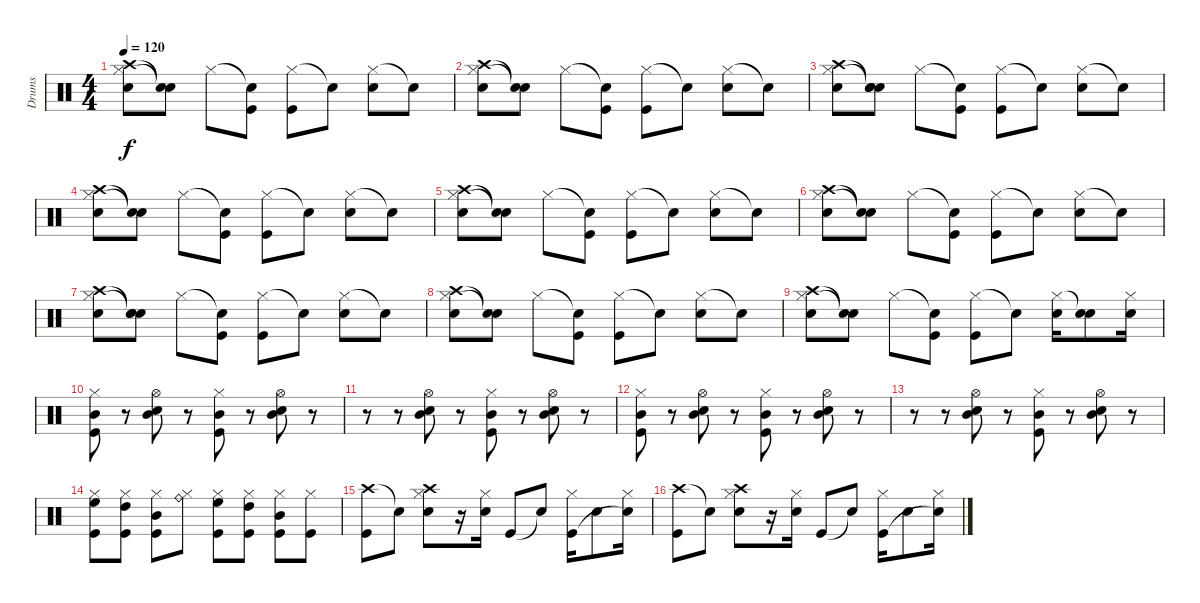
\track ("Drums" "Drums") {instrument percussion}
\staff {score}
\articulation defaults
\ts (4 4)
\tempo 120
\clef neutral
\ks c
("Hi-Hat (closed)" "Crash high (hit)" "Snare (hit) 2").8{dy f} ("Snare (hit)"{t} "Snare (hit)"{t}).8 "Hi-Hat (closed)".8 ("Snare (hit)"{t} "Kick (hit)").8 ("Hi-Hat (closed)" "Kick (hit)").8 "Snare (hit)"{t}.8 ("Hi-Hat (closed)" "Snare (hit) 2").8 "Snare (hit)"{t}.8 |
("Hi-Hat (closed)" "Crash high (hit)" "Snare (hit) 2").8 ("Snare (hit)"{t} "Snare (hit)"{t}).8 "Hi-Hat (closed)".8 ("Snare (hit)"{t} "Kick (hit)").8 ("Hi-Hat (closed)" "Kick (hit)").8 "Snare (hit)"{t}.8 ("Hi-Hat (closed)" "Snare (hit) 2").8 "Snare (hit)"{t}.8 |
("Hi-Hat (closed)" "Crash high (hit)" "Snare (hit) 2").8 ("Snare (hit)"{t} "Snare (hit)"{t} "Snare (hit) 2").8 "Hi-Hat (closed)".8 ("Snare (hit)"{t} "Kick (hit)").8 ("Hi-Hat (closed)" "Kick (hit)").8 "Snare (hit)"{t}.8 ("Hi-Hat (closed)" "Snare (hit) 2").8 "Snare (hit)"{t}.8 |
("Hi-Hat (closed)" "Crash high (hit)" "Snare (hit) 2").8 ("Snare (hit)"{t} "Snare (hit)"{t}).8 "Hi-Hat (closed)".8 ("Snare (hit)"{t} "Kick (hit)").8 ("Hi-Hat (closed)" "Kick (hit)").8 "Snare (hit)"{t}.8 ("Hi-Hat (closed)" "Snare (hit) 2").8 "Snare (hit)"{t}.8 |
("Hi-Hat (closed)" "Crash high (hit)" "Snare (hit) 2").8 ("Snare (hit)"{t} "Snare (hit)"{t}).8 "Hi-Hat (closed)".8 ("Snare (hit)"{t} "Kick (hit)").8 ("Hi-Hat (closed)" "Kick (hit)").8 "Snare (hit)"{t}.8 ("Hi-Hat (closed)" "Snare (hit) 2").8 "Snare (hit)"{t}.8 |
("Hi-Hat (closed)" "Crash high (hit)" "Snare (hit) 2").8 ("Snare (hit)"{t} "Snare (hit)"{t}).8 "Hi-Hat (closed)".8 ("Snare (hit)"{t} "Kick (hit)").8 ("Hi-Hat (closed)" "Kick (hit)").8 "Snare (hit)"{t}.8 ("Hi-Hat (closed)" "Snare (hit) 2").8 "Snare (hit)"{t}.8 |
("Hi-Hat (closed)" "Crash high (hit)" "Snare (hit) 2").8 ("Snare (hit)"{t} "Snare (hit)"{t} "Snare (hit) 2").8 "Hi-Hat (closed)".8 ("Snare (hit)"{t} "Kick (hit)").8 ("Hi-Hat (closed)" "Kick (hit)").8 "Snare (hit)"{t}.8 ("Hi-Hat (closed)" "Snare (hit) 2").8 "Snare (hit)"{t}.8 |
("Hi-Hat (closed)" "Crash high (hit)" "Snare (hit) 2").8 ("Snare (hit)"{t} "Snare (hit)"{t}).8 "Hi-Hat (closed)".8 ("Snare (hit)"{t} "Kick (hit)").8 ("Hi-Hat (closed)" "Kick (hit)").8 "Snare (hit)"{t}.8 ("Hi-Hat (closed)" "Snare (hit) 2").8 "Snare (hit)"{t}.8 |
("Hi-Hat (closed)" "Crash high (hit)" "Snare (hit) 2").8 ("Snare (hit)"{t} "Snare (hit)"{t}).8 "Hi-Hat (closed)".8 ("Snare (hit)"{t} "Kick (hit)").8 ("Hi-Hat (closed)" "Kick (hit)").8 "Snare (hit)"{t}.8 ("Hi-Hat (closed)" "Snare (hit) 2").16 ("Snare (hit)"{t} "Snare (hit) 2").8 ("Hi-Hat (closed)" "Snare (hit) 2").16 |
("Hi-Hat (closed)" "Mid Tom (hit)" "Kick (hit)").8 r.8 ("Hi-Hat (open)" "Mid Tom (hit)" "Snare (hit) 2").8 r.8 ("Hi-Hat (closed)" "Mid Tom (hit)" "Kick (hit)").8 r.8 ("Hi-Hat (open)" "Mid Tom (hit)" "Snare (hit) 2").8 r.8 |
r.8 r.8 ("Hi-Hat (open)" "Mid Tom (hit)" "Snare (hit) 2").8 r.8 ("Hi-Hat (closed)" "Mid Tom (hit)" "Kick (hit)").8 r.8 ("Hi-Hat (open)" "Mid Tom (hit)" "Snare (hit) 2").8 r.8 |
("Hi-Hat (closed)" "Mid Tom (hit)" "Kick (hit)").8 r.8 ("Hi-Hat (open)" "Mid Tom (hit)" "Snare (hit) 2").8 r.8 ("Hi-Hat (closed)" "Mid Tom (hit)" "Kick (hit)").8 r.8 ("Hi-Hat (open)" "Mid Tom (hit)" "Snare (hit) 2").8 r.8 |
r.8 r.8 ("Hi-Hat (open)" "Mid Tom (hit)" "Snare (hit) 2").8 r.8 ("Hi-Hat (closed)" "Mid Tom (hit)" "Kick (hit)").8 r.8 ("Hi-Hat (open)" "Mid Tom (hit)" "Snare (hit) 2").8 r.8 |
("High Floor Tom (hit)" "Hi-Hat (closed)" "Kick (hit)").8 ("High Tom (hit)" "Hi-Hat (closed)" "Kick (hit)").8 ("Mid Tom (hit)" "Hi-Hat (closed)" "Kick (hit)").8 ("Hi-Hat (closed)" "Ride (bell)").8 ("High Floor Tom (hit)" "Hi-Hat (closed)" "Kick (hit)").8 ("High Tom (hit)" "Hi-Hat (closed)" "Kick (hit)").8 ("Mid Tom (hit)" "Hi-Hat (closed)" "Kick (hit)").8 ("Hi-Hat (closed)" "Kick (hit)").8 |
("Crash high (hit)" "Kick (hit)").8 "Snare (hit)"{t}.8 ("Crash high (hit)" "Hi-Hat (closed)" "Snare (hit) 2").8 r.16 ("Hi-Hat (closed)" "Snare (hit) 2").16 "Kick (hit)".8 "Snare (hit)"{t}.8 ("Hi-Hat (closed)" "Kick (hit)").16 "Snare (hit) 2".8 ("Hi-Hat (closed)" "Snare (hit)"{t}).16 |
("Crash high (hit)" "Kick (hit)").8 "Snare (hit)"{t}.8 ("Crash high (hit)" "Hi-Hat (closed)" "Snare (hit) 2").8 r.16 ("Hi-Hat (closed)" "Snare (hit) 2").16 "Kick (hit)".8 "Snare (hit)"{t}.8 ("Hi-Hat (closed)" "Kick (hit)").16 "Snare (hit) 2".8 ("Hi-Hat (closed)" "Snare (hit)"{t}).16
